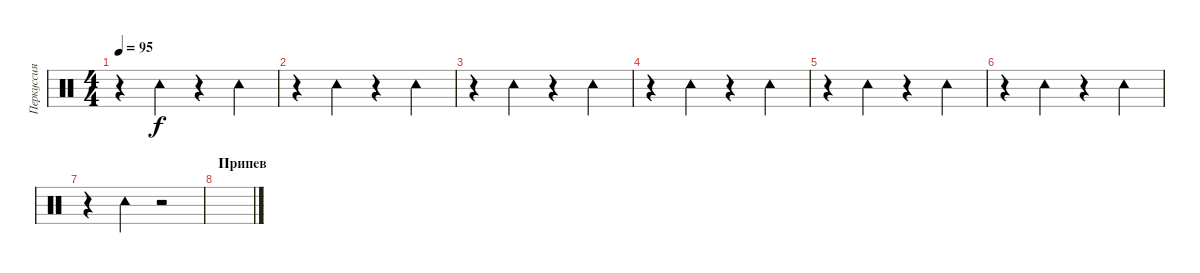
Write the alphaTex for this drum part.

\track ("Перкуссия" "Перкуссия") {instrument percussion}
\staff {score}
\articulation defaults
\ts (4 4)
\tempo 95
\clef neutral
\ks c
r.4{dy f} "Tambourine (hit)".4 r.4 "Tambourine (hit)".4 |
r.4 "Tambourine (hit)".4 r.4 "Tambourine (hit)".4 |
r.4 "Tambourine (hit)".4 r.4 "Tambourine (hit)".4 |
r.4 "Tambourine (hit)".4 r.4 "Tambourine (hit)".4 |
r.4 "Tambourine (hit)".4 r.4 "Tambourine (hit)".4 |
r.4 "Tambourine (hit)".4 r.4 "Tambourine (hit)".4 |
r.4 "Tambourine (hit)".4 r.2 |
\section ("" "Припев")
